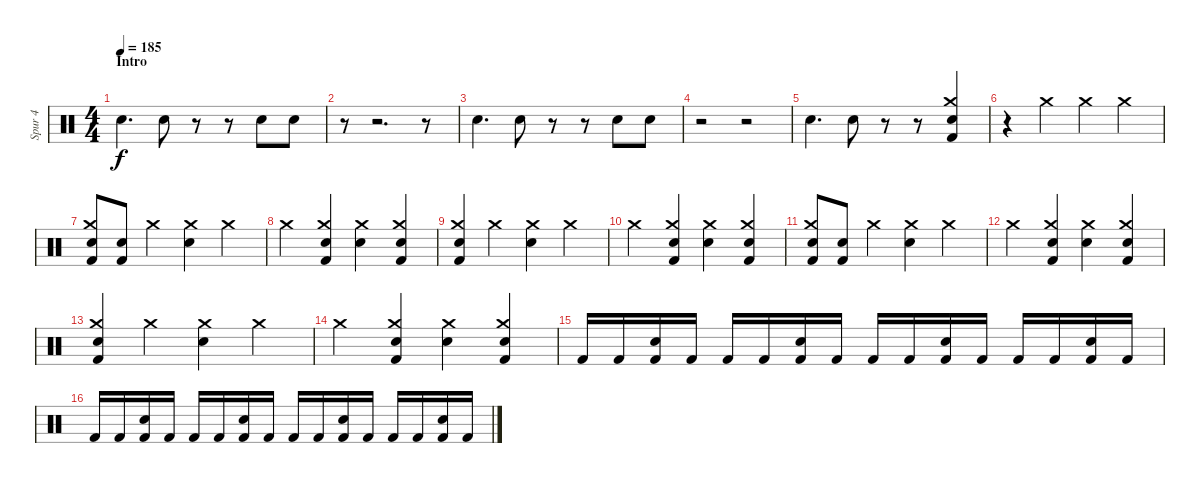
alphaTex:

\track ("Spur 4" "Spur 4") {instrument percussion}
\staff {score}
\articulation defaults
\ts (4 4)
\section ("" "Intro")
\tempo 185
\clef neutral
\ks c "Snare (hit) 2".4{d dy f} "Snare (hit) 2".8
r.8 r.8 "Electric Snare (hit)".8 "Electric Snare (hit)".8 |
r.8 r.2{d} r.8 |
"Snare (hit) 2".4{d} "Snare (hit) 2".8 r.8 r.8 "Electric Snare (hit)".8 "Electric Snare (hit)".8 |
r.2 r.2 |
"Snare (hit) 2".4{d} "Snare (hit) 2".8 r.8 r.8 ("Crash medium (hit)" "Electric Snare (hit)" "Kick (hit) 2").4 |
r.4 "Crash medium (hit)".4 "Crash medium (hit)".4 "Crash medium (hit)".4 |
("Crash medium (hit)" "Snare (hit) 2" "Kick (hit) 2").8 ("Snare (hit) 2" "Kick (hit) 2").8 "Crash medium (hit)".4 ("Crash medium (hit)" "Electric Snare (hit)").4 "Crash medium (hit)".4 |
"Crash medium (hit)".4 ("Crash medium (hit)" "Snare (hit) 2" "Kick (hit) 2").4 ("Crash medium (hit)" "Electric Snare (hit)").4 ("Crash medium (hit)" "Snare (hit) 2" "Kick (hit) 2").4 |
("Crash medium (hit)" "Snare (hit) 2" "Kick (hit) 2").4 "Crash medium (hit)".4 ("Crash medium (hit)" "Electric Snare (hit)").4 "Crash medium (hit)".4 |
"Crash medium (hit)".4 ("Crash medium (hit)" "Snare (hit) 2" "Kick (hit) 2").4 ("Crash medium (hit)" "Electric Snare (hit)").4 ("Crash medium (hit)" "Snare (hit) 2" "Kick (hit) 2").4 |
("Crash medium (hit)" "Snare (hit) 2" "Kick (hit) 2").8 ("Snare (hit) 2" "Kick (hit) 2").8 "Crash medium (hit)".4 ("Crash medium (hit)" "Electric Snare (hit)").4 "Crash medium (hit)".4 |
"Crash medium (hit)".4 ("Crash medium (hit)" "Snare (hit) 2" "Kick (hit) 2").4 ("Crash medium (hit)" "Electric Snare (hit)").4 ("Crash medium (hit)" "Snare (hit) 2" "Kick (hit) 2").4 |
("Crash medium (hit)" "Snare (hit) 2" "Kick (hit) 2").4 "Crash medium (hit)".4 ("Crash medium (hit)" "Electric Snare (hit)").4 "Crash medium (hit)".4 |
"Crash medium (hit)".4 ("Crash medium (hit)" "Snare (hit) 2" "Kick (hit) 2").4 ("Crash medium (hit)" "Electric Snare (hit)").4 ("Crash medium (hit)" "Snare (hit) 2" "Kick (hit) 2").4 |
"Kick (hit) 2".16 "Kick (hit) 2".16 ("Electric Snare (hit)" "Kick (hit) 2").16 "Kick (hit) 2".16 "Kick (hit) 2".16 "Kick (hit) 2".16 ("Electric Snare (hit)" "Kick (hit) 2").16 "Kick (hit) 2".16 "Kick (hit) 2".16 "Kick (hit) 2".16 ("Electric Snare (hit)" "Kick (hit) 2").16 "Kick (hit) 2".16 "Kick (hit) 2".16 "Kick (hit) 2".16 ("Electric Snare (hit)" "Kick (hit) 2").16 "Kick (hit) 2".16 |
"Kick (hit) 2".16 "Kick (hit) 2".16 ("Electric Snare (hit)" "Kick (hit) 2").16 "Kick (hit) 2".16 "Kick (hit) 2".16 "Kick (hit) 2".16 ("Electric Snare (hit)" "Kick (hit) 2").16 "Kick (hit) 2".16 "Kick (hit) 2".16 "Kick (hit) 2".16 ("Electric Snare (hit)" "Kick (hit) 2").16 "Kick (hit) 2".16 "Kick (hit) 2".16 "Kick (hit) 2".16 ("Electric Snare (hit)" "Kick (hit) 2").16 "Kick (hit) 2".16
